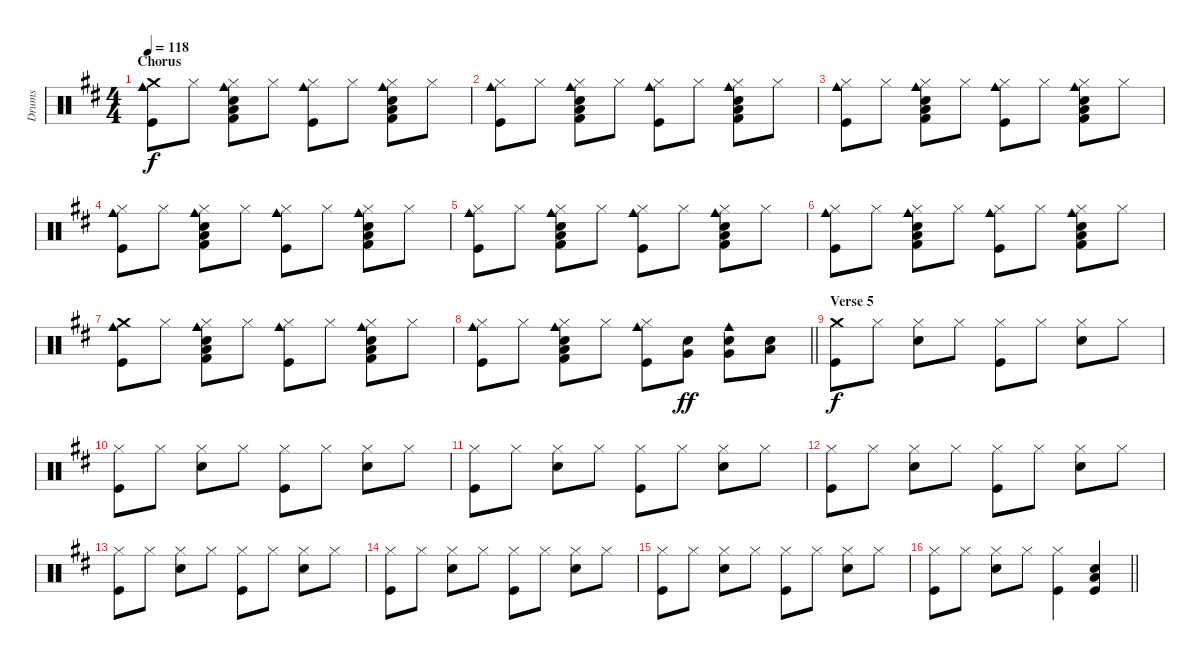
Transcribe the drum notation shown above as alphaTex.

\track ("Drums" "Drums") {instrument percussion}
\staff {score}
\articulation defaults
\ts (4 4)
\section ("" "Chorus")
\tempo 118
\clef neutral
\ks d
("Crash medium (hit)" "Cowbell medium (hit)" "Kick (hit)").8{dy f} "Hi-Hat (closed)".8 ("Hi-Hat (closed)" "Electric Snare (hit)" "Low Tom (hit)" "Cowbell medium (hit)" "Kick (hit) 2").8 "Hi-Hat (closed)".8 ("Hi-Hat (closed)" "Cowbell medium (hit)" "Kick (hit)").8 "Hi-Hat (closed)".8 ("Hi-Hat (closed)" "Electric Snare (hit)" "Low Tom (hit)" "Cowbell medium (hit)" "Kick (hit) 2").8 "Hi-Hat (closed)".8 |
("Hi-Hat (closed)" "Cowbell medium (hit)" "Kick (hit)").8 "Hi-Hat (closed)".8 ("Hi-Hat (closed)" "Electric Snare (hit)" "Low Tom (hit)" "Cowbell medium (hit)" "Kick (hit) 2").8 "Hi-Hat (closed)".8 ("Hi-Hat (closed)" "Cowbell medium (hit)" "Kick (hit)").8 "Hi-Hat (closed)".8 ("Hi-Hat (closed)" "Electric Snare (hit)" "Low Tom (hit)" "Cowbell medium (hit)" "Kick (hit) 2").8 "Hi-Hat (closed)".8 |
("Hi-Hat (closed)" "Cowbell medium (hit)" "Kick (hit)").8 "Hi-Hat (closed)".8 ("Hi-Hat (closed)" "Electric Snare (hit)" "Low Tom (hit)" "Cowbell medium (hit)" "Kick (hit) 2").8 "Hi-Hat (closed)".8 ("Hi-Hat (closed)" "Cowbell medium (hit)" "Kick (hit)").8 "Hi-Hat (closed)".8 ("Hi-Hat (closed)" "Electric Snare (hit)" "Low Tom (hit)" "Cowbell medium (hit)" "Kick (hit) 2").8 "Hi-Hat (closed)".8 |
("Hi-Hat (closed)" "Cowbell medium (hit)" "Kick (hit)").8 "Hi-Hat (closed)".8 ("Hi-Hat (closed)" "Electric Snare (hit)" "Low Tom (hit)" "Cowbell medium (hit)" "Kick (hit) 2").8 "Hi-Hat (closed)".8 ("Hi-Hat (closed)" "Cowbell medium (hit)" "Kick (hit)").8 "Hi-Hat (closed)".8 ("Hi-Hat (closed)" "Electric Snare (hit)" "Low Tom (hit)" "Cowbell medium (hit)" "Kick (hit) 2").8 "Hi-Hat (closed)".8 |
("Hi-Hat (closed)" "Cowbell medium (hit)" "Kick (hit)").8 "Hi-Hat (closed)".8 ("Hi-Hat (closed)" "Electric Snare (hit)" "Low Tom (hit)" "Cowbell medium (hit)" "Kick (hit) 2").8 "Hi-Hat (closed)".8 ("Hi-Hat (closed)" "Cowbell medium (hit)" "Kick (hit)").8 "Hi-Hat (closed)".8 ("Hi-Hat (closed)" "Electric Snare (hit)" "Low Tom (hit)" "Cowbell medium (hit)" "Kick (hit) 2").8 "Hi-Hat (closed)".8 |
("Hi-Hat (closed)" "Cowbell medium (hit)" "Kick (hit)").8 "Hi-Hat (closed)".8 ("Hi-Hat (closed)" "Electric Snare (hit)" "Low Tom (hit)" "Cowbell medium (hit)" "Kick (hit) 2").8 "Hi-Hat (closed)".8 ("Hi-Hat (closed)" "Cowbell medium (hit)" "Kick (hit)").8 "Hi-Hat (closed)".8 ("Hi-Hat (closed)" "Electric Snare (hit)" "Low Tom (hit)" "Cowbell medium (hit)" "Kick (hit) 2").8 "Hi-Hat (closed)".8 |
("Crash medium (hit)" "Cowbell medium (hit)" "Kick (hit)").8 "Hi-Hat (closed)".8 ("Hi-Hat (closed)" "Electric Snare (hit)" "Low Tom (hit)" "Cowbell medium (hit)" "Kick (hit) 2").8 "Hi-Hat (closed)".8 ("Hi-Hat (closed)" "Cowbell medium (hit)" "Kick (hit)").8 "Hi-Hat (closed)".8 ("Hi-Hat (closed)" "Electric Snare (hit)" "Low Tom (hit)" "Cowbell medium (hit)" "Kick (hit) 2").8 "Hi-Hat (closed)".8 |
\barLineRight lightlight
("Hi-Hat (closed)" "Cowbell medium (hit)" "Kick (hit)").8 "Hi-Hat (closed)".8 ("Hi-Hat (closed)" "Electric Snare (hit)" "Low Tom (hit)" "Cowbell medium (hit)" "Kick (hit) 2").8 "Hi-Hat (closed)".8 ("Hi-Hat (closed)" "Cowbell medium (hit)" "Kick (hit)").8 ("Electric Snare (hit)" "Very Low Tom (hit)").8{dy ff} ("Electric Snare (hit)" "Very Low Tom (hit)" "Cowbell medium (hit)").8 ("Electric Snare (hit)" "Low Tom (hit)").8 |
\section ("" "Verse 5")
("Crash medium (hit)" "Kick (hit)").8{dy f} "Hi-Hat (closed)".8 ("Hi-Hat (closed)" "Electric Snare (hit)").8 "Hi-Hat (closed)".8 ("Hi-Hat (closed)" "Kick (hit)").8 "Hi-Hat (closed)".8 ("Hi-Hat (closed)" "Electric Snare (hit)").8 "Hi-Hat (closed)".8 |
("Hi-Hat (closed)" "Kick (hit)").8 "Hi-Hat (closed)".8 ("Hi-Hat (closed)" "Electric Snare (hit)").8 "Hi-Hat (closed)".8 ("Hi-Hat (closed)" "Kick (hit)").8 "Hi-Hat (closed)".8 ("Hi-Hat (closed)" "Electric Snare (hit)").8 "Hi-Hat (closed)".8 |
("Hi-Hat (closed)" "Kick (hit)").8 "Hi-Hat (closed)".8 ("Hi-Hat (closed)" "Electric Snare (hit)").8 "Hi-Hat (closed)".8 ("Hi-Hat (closed)" "Kick (hit)").8 "Hi-Hat (closed)".8 ("Hi-Hat (closed)" "Electric Snare (hit)").8 "Hi-Hat (closed)".8 |
("Hi-Hat (closed)" "Kick (hit)").8 "Hi-Hat (closed)".8 ("Hi-Hat (closed)" "Electric Snare (hit)").8 "Hi-Hat (closed)".8 ("Hi-Hat (closed)" "Kick (hit)").8 "Hi-Hat (closed)".8 ("Hi-Hat (closed)" "Electric Snare (hit)").8 "Hi-Hat (closed)".8 |
("Hi-Hat (closed)" "Kick (hit)").8 "Hi-Hat (closed)".8 ("Hi-Hat (closed)" "Electric Snare (hit)").8 "Hi-Hat (closed)".8 ("Hi-Hat (closed)" "Kick (hit)").8 "Hi-Hat (closed)".8 ("Hi-Hat (closed)" "Electric Snare (hit)").8 "Hi-Hat (closed)".8 |
("Hi-Hat (closed)" "Kick (hit)").8 "Hi-Hat (closed)".8 ("Hi-Hat (closed)" "Electric Snare (hit)").8 "Hi-Hat (closed)".8 ("Hi-Hat (closed)" "Kick (hit)").8 "Hi-Hat (closed)".8 ("Hi-Hat (closed)" "Electric Snare (hit)").8 "Hi-Hat (closed)".8 |
("Hi-Hat (closed)" "Kick (hit)").8 "Hi-Hat (closed)".8 ("Hi-Hat (closed)" "Electric Snare (hit)").8 "Hi-Hat (closed)".8 ("Hi-Hat (closed)" "Kick (hit)").8 "Hi-Hat (closed)".8 ("Hi-Hat (closed)" "Electric Snare (hit)").8 "Hi-Hat (closed)".8 |
\barLineRight lightlight
("Hi-Hat (closed)" "Kick (hit)").8 "Hi-Hat (closed)".8 ("Hi-Hat (closed)" "Electric Snare (hit)").8 "Hi-Hat (closed)".8 ("Hi-Hat (closed)" "Kick (hit)").4 ("Electric Snare (hit)" "Low Tom (hit)" "Kick (hit)").4
